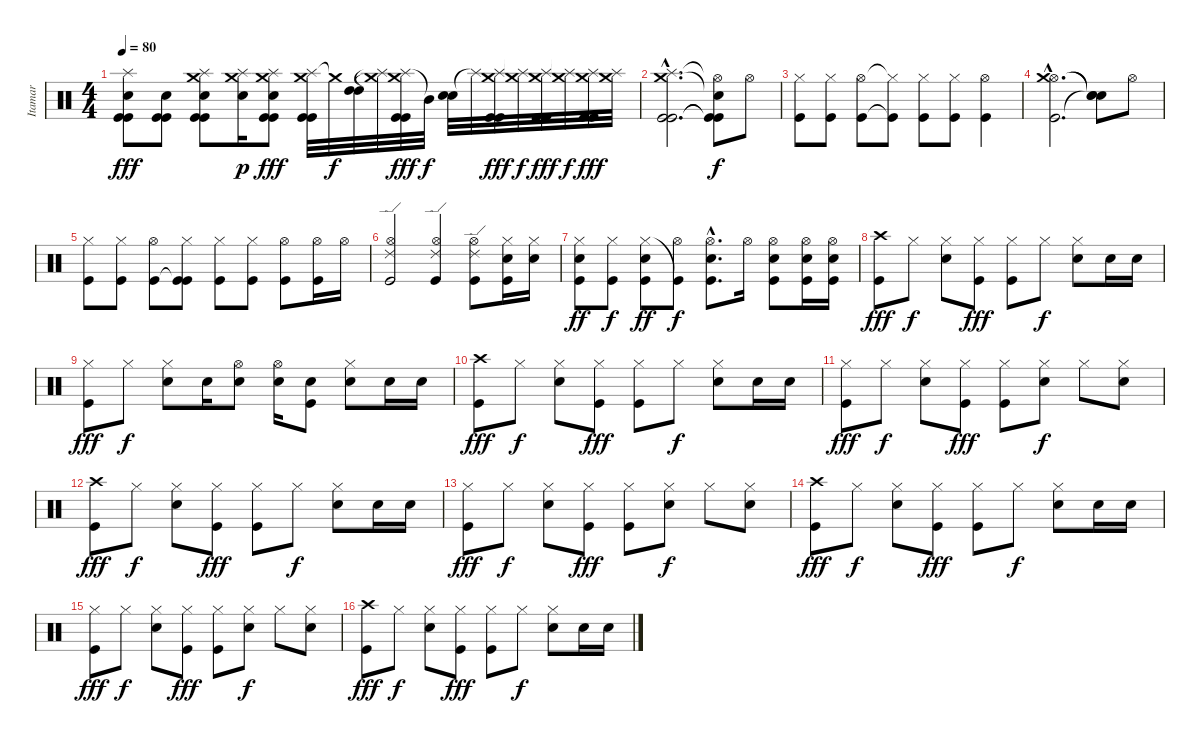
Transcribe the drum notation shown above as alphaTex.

\track ("Itamar" "Itamar") {instrument percussion}
\staff {score}
\articulation defaults
\ts (4 4)
\tempo 80
\clef neutral
\ks c
("Splash (hit)" "Snare (hit) 2" "Kick (hit)" "Kick (hit)").8{dy fff} ("Snare (hit) 2" "Kick (hit)" "Kick (hit)").8 ("Splash (hit)" "Crash medium (hit)" "Snare (hit) 2" "Kick (hit)" "Kick (hit)").8 ("Splash (hit)" "Crash medium (hit)" "Snare (hit) 2").16{dy p} ("Splash (hit)" "Crash medium (hit)" "Snare (hit) 2" "Kick (hit)" "Kick (hit)").8{dy fff} ("Splash (hit)" "Crash medium (hit)" "Kick (hit)" "Kick (hit)").32 "Crash medium (hit)"{t}.32{dy f} ("High Tom (hit)" "High Tom (hit)").32 ("Splash (hit)"{t} "Crash medium (hit)"{t}).32 ("Splash (hit)" "Crash medium (hit)" "Kick (hit)" "Kick (hit)").32{dy fff} "Mid Tom (hit)"{t}.32{dy f} ("Electric Snare (hit)" "Electric Snare (hit)").32 "Splash (hit)"{t}.32 ("Splash (hit)" "Crash medium (hit)" "Kick (hit)" "Kick (hit)").32{dy fff} ("Splash (hit)"{t} "Crash medium (hit)"{t}).32{dy f} ("Splash (hit)" "Crash medium (hit)" "Kick (hit)" "Kick (hit)").32{dy fff} ("Splash (hit)"{t} "Crash medium (hit)"{t}).32{dy f} ("Splash (hit)" "Crash medium (hit)" "Kick (hit)" "Kick (hit)").32{dy fff} ("Splash (hit)" "Crash medium (hit)").32 |
("Splash (hit)"{hac} "Crash medium (hit)"{hac} "Kick (hit)"{hac} "Kick (hit)"{hac}).2{d} ("Hi-Hat (open)"{t} "Snare (hit)"{t} "Kick (hit)"{t} "Kick (hit)"{t}).8{dy f} "Hi-Hat (open)".8 |
("Hi-Hat (closed)" "Kick (hit)").8 ("Hi-Hat (closed)" "Kick (hit)").8 ("Hi-Hat (open)" "Kick (hit)").8 ("Hi-Hat (closed)"{t} "Kick (hit)"{t}).8 ("Hi-Hat (closed)" "Kick (hit)").8 ("Hi-Hat (closed)" "Kick (hit)").8 ("Hi-Hat (open)" "Kick (hit)").4 |
("Hi-Hat (open)"{hac} "Kick (hit)"{hac} "Crash medium (hit)"{hac}).2{d} ("Snare (hit)"{t} "Snare (hit)"{t} "Snare (hit)"{t}).8 "Hi-Hat (open)".8 |
("Hi-Hat (closed)" "Kick (hit)").8 ("Hi-Hat (closed)" "Kick (hit)").8 ("Hi-Hat (open)" "Kick (hit)").8 ("Hi-Hat (closed)" "Kick (hit)"{t} "Kick (hit)").8 ("Hi-Hat (closed)" "Kick (hit)").8 ("Hi-Hat (closed)" "Kick (hit)").8 ("Hi-Hat (open)" "Kick (hit)").8 ("Hi-Hat (open)" "Kick (hit)").16 "Hi-Hat (open)".16 |
("Hi-Hat (open)" "Ride (edge) 2" "Kick (hit)").2 ("Ride (edge) 2" "Hi-Hat (open)" "Kick (hit)").4 ("Ride (edge) 2" "Hi-Hat (open)" "Kick (hit)").8 ("Electric Snare (hit)" "Hi-Hat (closed)" "Kick (hit)").16 ("Electric Snare (hit)" "Hi-Hat (closed)").16 |
("Electric Snare (hit)" "Hi-Hat (closed)" "Kick (hit)").8{dy ff} ("Hi-Hat (closed)" "Kick (hit)").8{dy f} ("Electric Snare (hit)" "Hi-Hat (closed)" "Kick (hit)").8{dy ff} ("Hi-Hat (open)" "Kick (hit)"{t}).8{dy f} ("Snare (hit) 2"{hac} "Hi-Hat (open)"{hac} "Kick (hit)"{hac}).8{d} "Hi-Hat (open)".16 ("Snare (hit) 2" "Hi-Hat (open)" "Kick (hit)").8 ("Electric Snare (hit)" "Hi-Hat (open)" "Kick (hit)").16 ("Electric Snare (hit)" "Hi-Hat (open)" "Kick (hit)").16 |
("Crash high (hit)" "Kick (hit)").8{dy fff} "Hi-Hat (closed)".8{dy f} ("Hi-Hat (closed)" "Electric Snare (hit)").8 ("Hi-Hat (closed)" "Kick (hit)").8{dy fff} ("Hi-Hat (closed)" "Kick (hit)").8 "Hi-Hat (closed)".8{dy f} ("Hi-Hat (closed)" "Electric Snare (hit)").8 "Electric Snare (hit)".16 "Electric Snare (hit)".16 |
("Hi-Hat (closed)" "Kick (hit)").8{dy fff} "Hi-Hat (closed)".8{dy f} ("Hi-Hat (closed)" "Electric Snare (hit)").8 "Electric Snare (hit)".16 ("Electric Snare (hit)" "Hi-Hat (open)").8 ("Electric Snare (hit)" "Hi-Hat (open)").16 ("Electric Snare (hit)" "Kick (hit)").8 ("Electric Snare (hit)" "Hi-Hat (closed)").8 "Electric Snare (hit)".16 "Electric Snare (hit)".16 |
("Crash high (hit)" "Kick (hit)").8{dy fff} "Hi-Hat (closed)".8{dy f} ("Hi-Hat (closed)" "Electric Snare (hit)").8 ("Hi-Hat (closed)" "Kick (hit)").8{dy fff} ("Hi-Hat (closed)" "Kick (hit)").8 "Hi-Hat (closed)".8{dy f} ("Hi-Hat (closed)" "Electric Snare (hit)").8 "Electric Snare (hit)".16 "Electric Snare (hit)".16 |
("Hi-Hat (closed)" "Kick (hit)").8{dy fff} "Hi-Hat (closed)".8{dy f} ("Hi-Hat (closed)" "Electric Snare (hit)").8 ("Hi-Hat (closed)" "Kick (hit)").8{dy fff} ("Hi-Hat (closed)" "Kick (hit)").8 ("Hi-Hat (closed)" "Electric Snare (hit)").8{dy f} "Hi-Hat (closed)".8 ("Hi-Hat (closed)" "Electric Snare (hit)").8 |
("Crash high (hit)" "Kick (hit)").8{dy fff} "Hi-Hat (closed)".8{dy f} ("Hi-Hat (closed)" "Electric Snare (hit)").8 ("Hi-Hat (closed)" "Kick (hit)").8{dy fff} ("Hi-Hat (closed)" "Kick (hit)").8 "Hi-Hat (closed)".8{dy f} ("Hi-Hat (closed)" "Electric Snare (hit)").8 "Electric Snare (hit)".16 "Electric Snare (hit)".16 |
("Hi-Hat (closed)" "Kick (hit)").8{dy fff} "Hi-Hat (closed)".8{dy f} ("Hi-Hat (closed)" "Electric Snare (hit)").8 ("Hi-Hat (closed)" "Kick (hit)").8{dy fff} ("Hi-Hat (closed)" "Kick (hit)").8 ("Hi-Hat (closed)" "Electric Snare (hit)").8{dy f} "Hi-Hat (closed)".8 ("Hi-Hat (closed)" "Electric Snare (hit)").8 |
("Crash high (hit)" "Kick (hit)").8{dy fff} "Hi-Hat (closed)".8{dy f} ("Hi-Hat (closed)" "Electric Snare (hit)").8 ("Hi-Hat (closed)" "Kick (hit)").8{dy fff} ("Hi-Hat (closed)" "Kick (hit)").8 "Hi-Hat (closed)".8{dy f} ("Hi-Hat (closed)" "Electric Snare (hit)").8 "Electric Snare (hit)".16 "Electric Snare (hit)".16 |
("Hi-Hat (closed)" "Kick (hit)").8{dy fff} "Hi-Hat (closed)".8{dy f} ("Hi-Hat (closed)" "Electric Snare (hit)").8 ("Hi-Hat (closed)" "Kick (hit)").8{dy fff} ("Hi-Hat (closed)" "Kick (hit)").8 ("Hi-Hat (closed)" "Electric Snare (hit)").8{dy f} "Hi-Hat (closed)".8 ("Hi-Hat (closed)" "Electric Snare (hit)").8 |
("Crash high (hit)" "Kick (hit)").8{dy fff} "Hi-Hat (closed)".8{dy f} ("Hi-Hat (closed)" "Electric Snare (hit)").8 ("Hi-Hat (closed)" "Kick (hit)").8{dy fff} ("Hi-Hat (closed)" "Kick (hit)").8 "Hi-Hat (closed)".8{dy f} ("Hi-Hat (closed)" "Electric Snare (hit)").8 "Electric Snare (hit)".16 "Electric Snare (hit)".16
